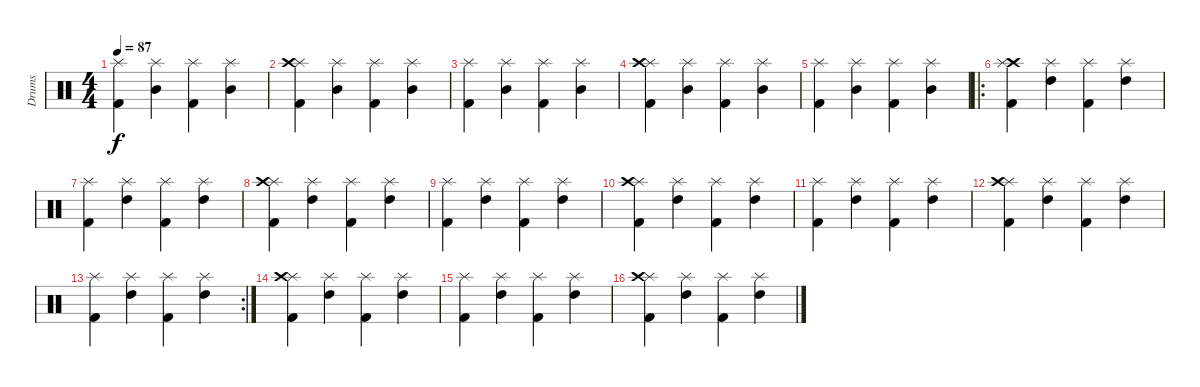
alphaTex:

\track ("Drums" "Drums") {instrument percussion}
\staff {score}
\articulation defaults
\ts (4 4)
\tempo 87
\clef neutral
\ks c
("Splash (hit)" "Kick (hit) 2").4{dy f} ("Splash (hit)" "Mid Tom (hit)").4 ("Splash (hit)" "Kick (hit) 2").4 ("Splash (hit)" "Mid Tom (hit)").4 |
("Splash (hit)" "Crash high (hit)" "Kick (hit) 2").4 ("Splash (hit)" "Mid Tom (hit)").4 ("Splash (hit)" "Kick (hit) 2").4 ("Splash (hit)" "Mid Tom (hit)").4 |
("Splash (hit)" "Kick (hit) 2").4 ("Splash (hit)" "Mid Tom (hit)").4 ("Splash (hit)" "Kick (hit) 2").4 ("Splash (hit)" "Mid Tom (hit)").4 |
("Splash (hit)" "Crash high (hit)" "Kick (hit) 2").4 ("Splash (hit)" "Mid Tom (hit)").4 ("Splash (hit)" "Kick (hit) 2").4 ("Splash (hit)" "Mid Tom (hit)").4 |
("Splash (hit)" "Kick (hit) 2").4 ("Splash (hit)" "Mid Tom (hit)").4 ("Splash (hit)" "Kick (hit) 2").4 ("Splash (hit)" "Mid Tom (hit)").4 |
\ro
("Crash high (hit)" "Splash (hit)" "Kick (hit) 2").4 ("Splash (hit)" "High Tom (hit)").4 ("Splash (hit)" "Kick (hit) 2").4 ("Splash (hit)" "High Tom (hit)").4 |
("Splash (hit)" "Kick (hit) 2").4 ("Splash (hit)" "High Tom (hit)").4 ("Splash (hit)" "Kick (hit) 2").4 ("Splash (hit)" "High Tom (hit)").4 |
("Splash (hit)" "Crash high (hit)" "Kick (hit) 2").4 ("Splash (hit)" "High Tom (hit)").4 ("Splash (hit)" "Kick (hit) 2").4 ("Splash (hit)" "High Tom (hit)").4 |
("Splash (hit)" "Kick (hit) 2").4 ("Splash (hit)" "High Tom (hit)").4 ("Splash (hit)" "Kick (hit) 2").4 ("Splash (hit)" "High Tom (hit)").4 |
("Splash (hit)" "Crash high (hit)" "Kick (hit) 2").4 ("Splash (hit)" "High Tom (hit)").4 ("Splash (hit)" "Kick (hit) 2").4 ("Splash (hit)" "High Tom (hit)").4 |
("Splash (hit)" "Kick (hit) 2").4 ("Splash (hit)" "High Tom (hit)").4 ("Splash (hit)" "Kick (hit) 2").4 ("Splash (hit)" "High Tom (hit)").4 |
("Splash (hit)" "Crash high (hit)" "Kick (hit) 2").4 ("Splash (hit)" "High Tom (hit)").4 ("Splash (hit)" "Kick (hit) 2").4 ("Splash (hit)" "High Tom (hit)").4 |
\rc 2
("Splash (hit)" "Kick (hit) 2").4 ("Splash (hit)" "High Tom (hit)").4 ("Splash (hit)" "Kick (hit) 2").4 ("Splash (hit)" "High Tom (hit)").4 |
("Splash (hit)" "Crash high (hit)" "Kick (hit) 2").4 ("Splash (hit)" "High Tom (hit)").4 ("Splash (hit)" "Kick (hit) 2").4 ("Splash (hit)" "High Tom (hit)").4 |
("Splash (hit)" "Kick (hit) 2").4 ("Splash (hit)" "High Tom (hit)").4 ("Splash (hit)" "Kick (hit) 2").4 ("Splash (hit)" "High Tom (hit)").4 |
("Splash (hit)" "Crash high (hit)" "Kick (hit) 2").4 ("Splash (hit)" "High Tom (hit)").4 ("Splash (hit)" "Kick (hit) 2").4 ("Splash (hit)" "High Tom (hit)").4
